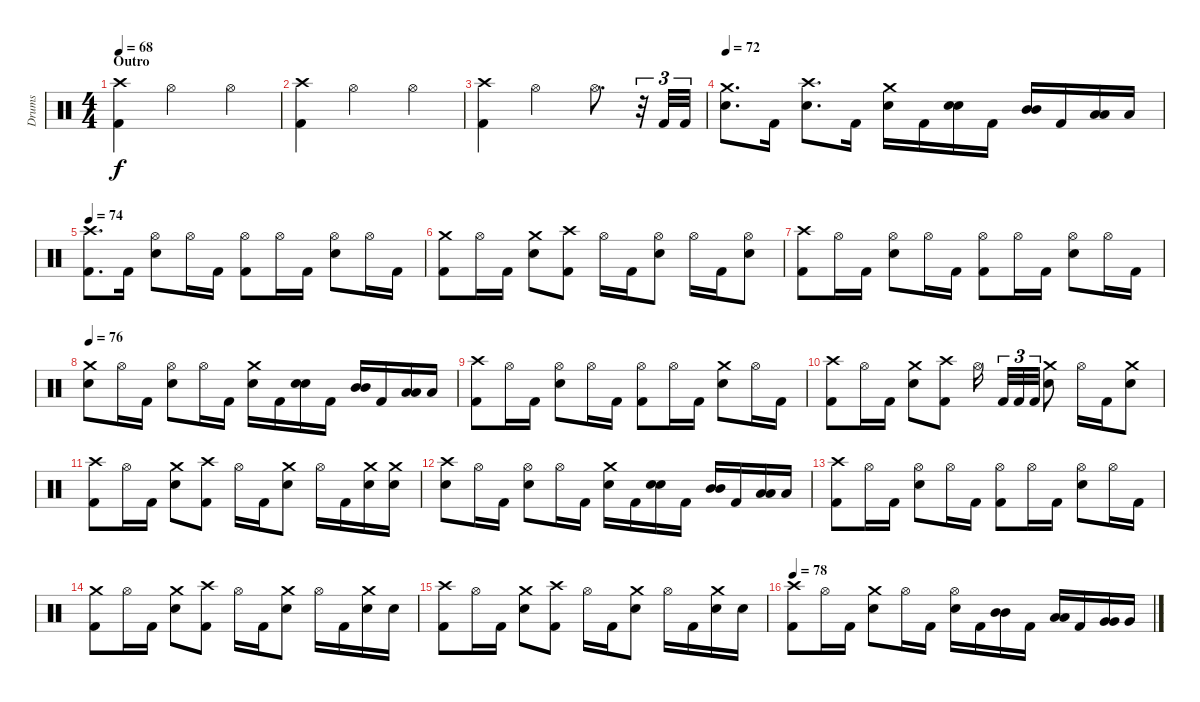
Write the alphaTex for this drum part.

\track ("Drums" "Drums") {instrument percussion}
\staff {score}
\articulation defaults
\ts (4 4)
\section ("" "Outro")
\tempo 68
\clef neutral
\ks c
("Crash high (hit)" "Kick (hit) 2").4{dy f} "Hi-Hat (open)".2 "Hi-Hat (open)".4 |
("Crash high (hit)" "Kick (hit) 2").4 "Hi-Hat (open)".2 "Hi-Hat (open)".4 |
("Crash high (hit)" "Kick (hit) 2").4 "Hi-Hat (open)".2 "Hi-Hat (open)".8{d} r.32{tu (3 2)} "Kick (hit) 2".32{tu (3 2)} "Kick (hit) 2".32{tu (3 2)} |
\tempo 72
("Crash medium (hit)" "Electric Snare (hit)").8{d} "Kick (hit) 2".16 ("Crash high (hit)" "Electric Snare (hit)").8{d} "Kick (hit) 2".16 ("Crash medium (hit)" "Electric Snare (hit)").16 "Kick (hit) 2".16 ("Electric Snare (hit)" "Electric Snare (hit)").16{bu 60} "Kick (hit) 2".16 ("Mid Tom (hit)" "Mid Tom (hit)").16{bu 60} "Kick (hit) 2".16 ("Low Tom (hit)" "Low Tom (hit)").16{bu 60} "Low Tom (hit)".16 |
\tempo 74
("Crash high (hit)" "Kick (hit) 2").8{d} "Kick (hit) 2".16 ("Hi-Hat (open)" "Electric Snare (hit)").8 "Hi-Hat (open)".16 "Kick (hit) 2".16 ("Hi-Hat (open)" "Kick (hit) 2").8 "Hi-Hat (open)".16 "Kick (hit) 2".16 ("Hi-Hat (open)" "Electric Snare (hit)").8 "Hi-Hat (open)".16 "Kick (hit) 2".16 |
("Crash medium (hit)" "Kick (hit) 2").8 "Hi-Hat (open)".16 "Kick (hit) 2".16 ("Crash medium (hit)" "Electric Snare (hit)").8 ("Crash high (hit)" "Kick (hit) 2").8 "Hi-Hat (open)".16 "Kick (hit) 2".16 ("Hi-Hat (open)" "Electric Snare (hit)").8 "Hi-Hat (open)".16 "Kick (hit) 2".16 ("Hi-Hat (open)" "Electric Snare (hit)").8 |
("Crash high (hit)" "Kick (hit) 2").8 "Hi-Hat (open)".16 "Kick (hit) 2".16 ("Hi-Hat (open)" "Electric Snare (hit)").8 "Hi-Hat (open)".16 "Kick (hit) 2".16 ("Hi-Hat (open)" "Kick (hit) 2").8 "Hi-Hat (open)".16 "Kick (hit) 2".16 ("Hi-Hat (open)" "Electric Snare (hit)").8 "Hi-Hat (open)".16 "Kick (hit) 2".16 |
\tempo 76
("Crash medium (hit)" "Electric Snare (hit)").8 "Hi-Hat (open)".16 "Kick (hit) 2".16 ("Hi-Hat (open)" "Electric Snare (hit)").8 "Hi-Hat (open)".16 "Kick (hit) 2".16 ("Crash medium (hit)" "Electric Snare (hit)").16 "Kick (hit) 2".16 ("Electric Snare (hit)" "Electric Snare (hit)").16{bu 60} "Kick (hit) 2".16 ("Mid Tom (hit)" "Mid Tom (hit)").16{bu 60} "Kick (hit) 2".16 ("Low Tom (hit)" "Low Tom (hit)").16{bu 60} "Low Tom (hit)".16 |
("Crash high (hit)" "Kick (hit) 2").8 "Hi-Hat (open)".16 "Kick (hit) 2".16 ("Hi-Hat (open)" "Electric Snare (hit)").8 "Hi-Hat (open)".16 "Kick (hit) 2".16 ("Hi-Hat (open)" "Kick (hit) 2").8 "Hi-Hat (open)".16 "Kick (hit) 2".16 ("Crash medium (hit)" "Electric Snare (hit)").8 "Hi-Hat (open)".16 "Kick (hit) 2".16 |
("Crash high (hit)" "Kick (hit) 2").8 "Hi-Hat (open)".16 "Kick (hit) 2".16 ("Crash medium (hit)" "Electric Snare (hit)").8 ("Crash high (hit)" "Kick (hit) 2").8 "Hi-Hat (open)".16{beam splitsecondary} "Kick (hit) 2".32{tu (3 2)} "Kick (hit) 2".32{tu (3 2)} "Kick (hit) 2".32{tu (3 2)} ("Crash medium (hit)" "Electric Snare (hit)").8 "Hi-Hat (open)".16 "Kick (hit) 2".16 ("Crash medium (hit)" "Electric Snare (hit)").8 |
("Crash high (hit)" "Kick (hit) 2").8 "Hi-Hat (open)".16 "Kick (hit) 2".16 ("Crash medium (hit)" "Electric Snare (hit)").8 ("Crash high (hit)" "Kick (hit) 2").8 "Hi-Hat (open)".16 "Kick (hit) 2".16 ("Crash medium (hit)" "Electric Snare (hit)").8 "Hi-Hat (open)".16 "Kick (hit) 2".16 ("Crash medium (hit)" "Electric Snare (hit)").16 ("Crash medium (hit)" "Electric Snare (hit)").16 |
("Crash high (hit)" "Electric Snare (hit)").8 "Hi-Hat (open)".16 "Kick (hit) 2".16 ("Hi-Hat (open)" "Electric Snare (hit)").8 "Hi-Hat (open)".16 "Kick (hit) 2".16 ("Crash medium (hit)" "Electric Snare (hit)").16 "Kick (hit) 2".16 ("Electric Snare (hit)" "Electric Snare (hit)").16{bu 60} "Kick (hit) 2".16 ("Mid Tom (hit)" "Mid Tom (hit)").16{bu 60} "Kick (hit) 2".16 ("Low Tom (hit)" "Low Tom (hit)").16{bu 60} "Low Tom (hit)".16 |
("Crash high (hit)" "Kick (hit) 2").8 "Hi-Hat (open)".16 "Kick (hit) 2".16 ("Hi-Hat (open)" "Electric Snare (hit)").8 "Hi-Hat (open)".16 "Kick (hit) 2".16 ("Hi-Hat (open)" "Kick (hit) 2").8 "Hi-Hat (open)".16 "Kick (hit) 2".16 ("Hi-Hat (open)" "Electric Snare (hit)").8 "Hi-Hat (open)".16 "Kick (hit) 2".16 |
("Crash medium (hit)" "Kick (hit) 2").8 "Hi-Hat (open)".16 "Kick (hit) 2".16 ("Crash medium (hit)" "Electric Snare (hit)").8 ("Crash high (hit)" "Kick (hit) 2").8 "Hi-Hat (open)".16 "Kick (hit) 2".16 ("Crash medium (hit)" "Electric Snare (hit)").8 "Hi-Hat (open)".16 "Kick (hit) 2".16 ("Crash medium (hit)" "Electric Snare (hit)").16 "Electric Snare (hit)".16 |
("Crash high (hit)" "Kick (hit) 2").8 "Hi-Hat (open)".16 "Kick (hit) 2".16 ("Crash medium (hit)" "Electric Snare (hit)").8 ("Crash high (hit)" "Kick (hit) 2").8 "Hi-Hat (open)".16 "Kick (hit) 2".16 ("Crash medium (hit)" "Electric Snare (hit)").8 "Hi-Hat (open)".16 "Kick (hit) 2".16 ("Crash medium (hit)" "Electric Snare (hit)").16 "Electric Snare (hit)".16 |
\tempo 78
("Crash high (hit)" "Kick (hit) 2").8 "Hi-Hat (open)".16 "Kick (hit) 2".16 ("Crash medium (hit)" "Electric Snare (hit)").8 "Hi-Hat (open)".16 "Kick (hit) 2".16 ("Hi-Hat (open)" "Electric Snare (hit)").16 "Kick (hit) 2".16 ("Mid Tom (hit)" "Mid Tom (hit)").16{bu 60} "Kick (hit) 2".16 ("Low Tom (hit)" "Low Tom (hit)").16{bu 60} "Kick (hit) 2".16 ("Very Low Tom (hit)" "Very Low Tom (hit)").16{bu 60} "Very Low Tom (hit)".16
